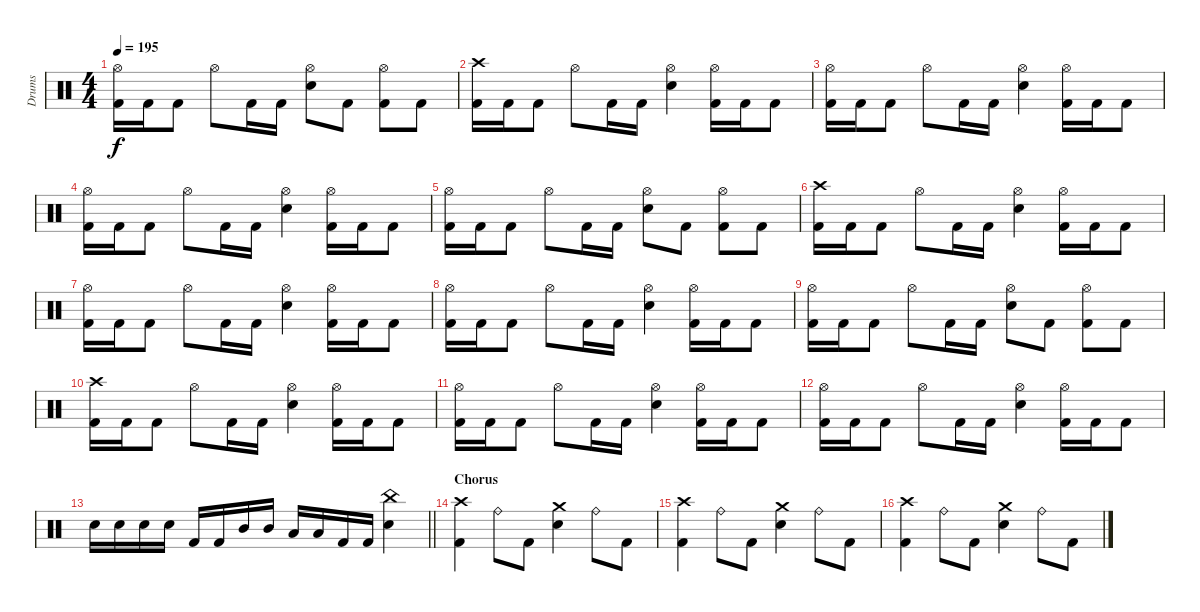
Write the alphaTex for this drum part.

\track ("Drums" "Drums") {instrument percussion}
\staff {score}
\articulation defaults
\ts (4 4)
\tempo 195
\clef neutral
\ks c
("Hi-Hat (open)" "Kick (hit) 2").16{dy f} "Kick (hit) 2".16 "Kick (hit) 2".8 "Hi-Hat (open)".8 "Kick (hit) 2".16 "Kick (hit) 2".16 ("Hi-Hat (open)" "Electric Snare (hit)").8 "Kick (hit) 2".8 ("Hi-Hat (open)" "Kick (hit) 2").8 "Kick (hit) 2".8 |
("Crash high (hit)" "Kick (hit) 2").16 "Kick (hit) 2".16 "Kick (hit) 2".8 "Hi-Hat (open)".8 "Kick (hit) 2".16 "Kick (hit) 2".16 ("Hi-Hat (open)" "Electric Snare (hit)").4 ("Hi-Hat (open)" "Kick (hit) 2").16 "Kick (hit) 2".16 "Kick (hit) 2".8 |
("Hi-Hat (open)" "Kick (hit) 2").16 "Kick (hit) 2".16 "Kick (hit) 2".8 "Hi-Hat (open)".8 "Kick (hit) 2".16 "Kick (hit) 2".16 ("Hi-Hat (open)" "Electric Snare (hit)").4 ("Hi-Hat (open)" "Kick (hit) 2").16 "Kick (hit) 2".16 "Kick (hit) 2".8 |
("Hi-Hat (open)" "Kick (hit) 2").16 "Kick (hit) 2".16 "Kick (hit) 2".8 "Hi-Hat (open)".8 "Kick (hit) 2".16 "Kick (hit) 2".16 ("Hi-Hat (open)" "Electric Snare (hit)").4 ("Hi-Hat (open)" "Kick (hit) 2").16 "Kick (hit) 2".16 "Kick (hit) 2".8 |
("Hi-Hat (open)" "Kick (hit) 2").16 "Kick (hit) 2".16 "Kick (hit) 2".8 "Hi-Hat (open)".8 "Kick (hit) 2".16 "Kick (hit) 2".16 ("Hi-Hat (open)" "Electric Snare (hit)").8 "Kick (hit) 2".8 ("Hi-Hat (open)" "Kick (hit) 2").8 "Kick (hit) 2".8 |
("Crash high (hit)" "Kick (hit) 2").16 "Kick (hit) 2".16 "Kick (hit) 2".8 "Hi-Hat (open)".8 "Kick (hit) 2".16 "Kick (hit) 2".16 ("Hi-Hat (open)" "Electric Snare (hit)").4 ("Hi-Hat (open)" "Kick (hit) 2").16 "Kick (hit) 2".16 "Kick (hit) 2".8 |
("Hi-Hat (open)" "Kick (hit) 2").16 "Kick (hit) 2".16 "Kick (hit) 2".8 "Hi-Hat (open)".8 "Kick (hit) 2".16 "Kick (hit) 2".16 ("Hi-Hat (open)" "Electric Snare (hit)").4 ("Hi-Hat (open)" "Kick (hit) 2").16 "Kick (hit) 2".16 "Kick (hit) 2".8 |
("Hi-Hat (open)" "Kick (hit) 2").16 "Kick (hit) 2".16 "Kick (hit) 2".8 "Hi-Hat (open)".8 "Kick (hit) 2".16 "Kick (hit) 2".16 ("Hi-Hat (open)" "Electric Snare (hit)").4 ("Hi-Hat (open)" "Kick (hit) 2").16 "Kick (hit) 2".16 "Kick (hit) 2".8 |
("Hi-Hat (open)" "Kick (hit) 2").16 "Kick (hit) 2".16 "Kick (hit) 2".8 "Hi-Hat (open)".8 "Kick (hit) 2".16 "Kick (hit) 2".16 ("Hi-Hat (open)" "Electric Snare (hit)").8 "Kick (hit) 2".8 ("Hi-Hat (open)" "Kick (hit) 2").8 "Kick (hit) 2".8 |
("Crash high (hit)" "Kick (hit) 2").16 "Kick (hit) 2".16 "Kick (hit) 2".8 "Hi-Hat (open)".8 "Kick (hit) 2".16 "Kick (hit) 2".16 ("Hi-Hat (open)" "Electric Snare (hit)").4 ("Hi-Hat (open)" "Kick (hit) 2").16 "Kick (hit) 2".16 "Kick (hit) 2".8 |
("Hi-Hat (open)" "Kick (hit) 2").16 "Kick (hit) 2".16 "Kick (hit) 2".8 "Hi-Hat (open)".8 "Kick (hit) 2".16 "Kick (hit) 2".16 ("Hi-Hat (open)" "Electric Snare (hit)").4 ("Hi-Hat (open)" "Kick (hit) 2").16 "Kick (hit) 2".16 "Kick (hit) 2".8 |
("Hi-Hat (open)" "Kick (hit) 2").16 "Kick (hit) 2".16 "Kick (hit) 2".8 "Hi-Hat (open)".8 "Kick (hit) 2".16 "Kick (hit) 2".16 ("Hi-Hat (open)" "Electric Snare (hit)").4 ("Hi-Hat (open)" "Kick (hit) 2").16 "Kick (hit) 2".16 "Kick (hit) 2".8 |
\barLineRight lightlight "Electric Snare (hit)".16 "Electric Snare (hit)".16 "Electric Snare (hit)".16 "Electric Snare (hit)".16 "Kick (hit) 2".16 "Kick (hit) 2".16 "Mid Tom (hit)".16 "Mid Tom (hit)".16 "Low Tom (hit)".16 "Low Tom (hit)".16 "Kick (hit) 2".16 "Kick (hit) 2".16
("China (hit)" "Electric Snare (hit)").4 |
\section ("" "Chorus")
("Crash high (hit)" "Kick (hit) 2").4 "Ride (bell)".8 "Kick (hit) 2".8 ("Crash medium (hit)" "Electric Snare (hit)").4 "Ride (bell)".8 "Kick (hit) 2".8 |
("Crash high (hit)" "Kick (hit) 2").4 "Ride (bell)".8 "Kick (hit) 2".8 ("Crash medium (hit)" "Electric Snare (hit)").4 "Ride (bell)".8 "Kick (hit) 2".8 |
("Crash high (hit)" "Kick (hit) 2").4 "Ride (bell)".8 "Kick (hit) 2".8 ("Crash medium (hit)" "Electric Snare (hit)").4 "Ride (bell)".8 "Kick (hit) 2".8
